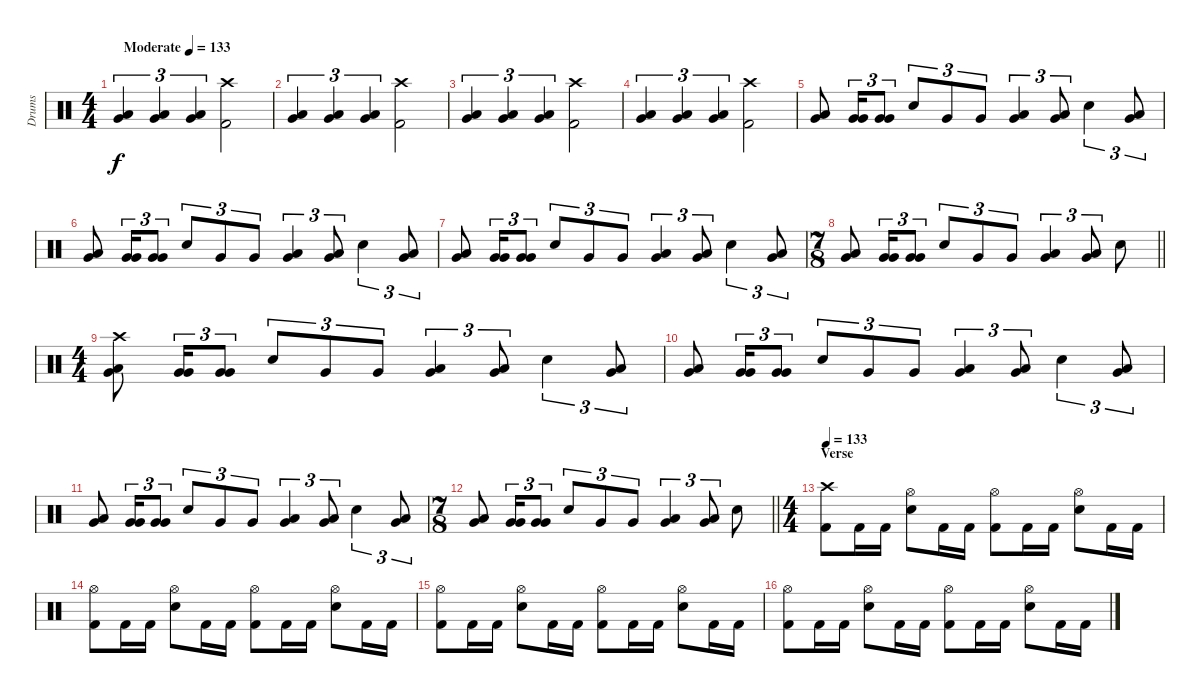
\track ("Drums" "Drums") {instrument percussion}
\staff {score}
\articulation defaults
\ts (4 4)
\tempo (133 "Moderate")
\clef neutral
\ks aminor
("Low Tom (hit)" "Very Low Tom (hit)").4{tu (3 2) dy f} ("Low Tom (hit)" "Very Low Tom (hit)").4{tu (3 2)} ("Low Tom (hit)" "Very Low Tom (hit)").4{tu (3 2)} ("Crash high (hit)" "Kick (hit) 2").2 |
("Low Tom (hit)" "Very Low Tom (hit)").4{tu (3 2)} ("Low Tom (hit)" "Very Low Tom (hit)").4{tu (3 2)} ("Low Tom (hit)" "Very Low Tom (hit)").4{tu (3 2)} ("Crash high (hit)" "Kick (hit) 2").2 |
("Low Tom (hit)" "Very Low Tom (hit)").4{tu (3 2)} ("Low Tom (hit)" "Very Low Tom (hit)").4{tu (3 2)} ("Low Tom (hit)" "Very Low Tom (hit)").4{tu (3 2)} ("Crash high (hit)" "Kick (hit) 2").2 |
("Low Tom (hit)" "Very Low Tom (hit)").4{tu (3 2)} ("Low Tom (hit)" "Very Low Tom (hit)").4{tu (3 2)} ("Low Tom (hit)" "Very Low Tom (hit)").4{tu (3 2)} ("Crash high (hit)" "Kick (hit) 2").2 |
("Low Tom (hit)" "Very Low Tom (hit)").8 ("Very Low Tom (hit)" "Very Low Tom (hit)").16{tu (3 2)} ("Very Low Tom (hit)" "Very Low Tom (hit)").8{tu (3 2)} "Electric Snare (hit)".8{tu (3 2)} "Very Low Tom (hit)".8{tu (3 2)} "Very Low Tom (hit)".8{tu (3 2)} ("Low Tom (hit)" "Very Low Tom (hit)").4{tu (3 2)} ("Low Tom (hit)" "Very Low Tom (hit)").8{tu (3 2)} "Electric Snare (hit)".4{tu (3 2)} ("Low Tom (hit)" "Very Low Tom (hit)").8{tu (3 2)} |
("Low Tom (hit)" "Very Low Tom (hit)").8 ("Very Low Tom (hit)" "Very Low Tom (hit)").16{tu (3 2)} ("Very Low Tom (hit)" "Very Low Tom (hit)").8{tu (3 2)} "Electric Snare (hit)".8{tu (3 2)} "Very Low Tom (hit)".8{tu (3 2)} "Very Low Tom (hit)".8{tu (3 2)} ("Low Tom (hit)" "Very Low Tom (hit)").4{tu (3 2)} ("Low Tom (hit)" "Very Low Tom (hit)").8{tu (3 2)} "Electric Snare (hit)".4{tu (3 2)} ("Low Tom (hit)" "Very Low Tom (hit)").8{tu (3 2)} |
("Low Tom (hit)" "Very Low Tom (hit)").8 ("Very Low Tom (hit)" "Very Low Tom (hit)").16{tu (3 2)} ("Very Low Tom (hit)" "Very Low Tom (hit)").8{tu (3 2)} "Electric Snare (hit)".8{tu (3 2)} "Very Low Tom (hit)".8{tu (3 2)} "Very Low Tom (hit)".8{tu (3 2)} ("Low Tom (hit)" "Very Low Tom (hit)").4{tu (3 2)} ("Low Tom (hit)" "Very Low Tom (hit)").8{tu (3 2)} "Electric Snare (hit)".4{tu (3 2)} ("Low Tom (hit)" "Very Low Tom (hit)").8{tu (3 2)} |
\ts (7 8)
\barLineRight lightlight
("Low Tom (hit)" "Very Low Tom (hit)").8 ("Very Low Tom (hit)" "Very Low Tom (hit)").16{tu (3 2)} ("Very Low Tom (hit)" "Very Low Tom (hit)").8{tu (3 2)} "Electric Snare (hit)".8{tu (3 2)} "Very Low Tom (hit)".8{tu (3 2)} "Very Low Tom (hit)".8{tu (3 2)} ("Low Tom (hit)" "Very Low Tom (hit)").4{tu (3 2)} ("Low Tom (hit)" "Very Low Tom (hit)").8{tu (3 2)} "Electric Snare (hit)".8 |
\ts (4 4)
("Crash high (hit)" "Low Tom (hit)" "Very Low Tom (hit)").8 ("Very Low Tom (hit)" "Very Low Tom (hit)").16{tu (3 2)} ("Very Low Tom (hit)" "Very Low Tom (hit)").8{tu (3 2)} "Electric Snare (hit)".8{tu (3 2)} "Very Low Tom (hit)".8{tu (3 2)} "Very Low Tom (hit)".8{tu (3 2)} ("Low Tom (hit)" "Very Low Tom (hit)").4{tu (3 2)} ("Low Tom (hit)" "Very Low Tom (hit)").8{tu (3 2)} "Electric Snare (hit)".4{tu (3 2)} ("Low Tom (hit)" "Very Low Tom (hit)").8{tu (3 2)} |
("Low Tom (hit)" "Very Low Tom (hit)").8 ("Very Low Tom (hit)" "Very Low Tom (hit)").16{tu (3 2)} ("Very Low Tom (hit)" "Very Low Tom (hit)").8{tu (3 2)} "Electric Snare (hit)".8{tu (3 2)} "Very Low Tom (hit)".8{tu (3 2)} "Very Low Tom (hit)".8{tu (3 2)} ("Low Tom (hit)" "Very Low Tom (hit)").4{tu (3 2)} ("Low Tom (hit)" "Very Low Tom (hit)").8{tu (3 2)} "Electric Snare (hit)".4{tu (3 2)} ("Low Tom (hit)" "Very Low Tom (hit)").8{tu (3 2)} |
("Low Tom (hit)" "Very Low Tom (hit)").8 ("Very Low Tom (hit)" "Very Low Tom (hit)").16{tu (3 2)} ("Very Low Tom (hit)" "Very Low Tom (hit)").8{tu (3 2)} "Electric Snare (hit)".8{tu (3 2)} "Very Low Tom (hit)".8{tu (3 2)} "Very Low Tom (hit)".8{tu (3 2)} ("Low Tom (hit)" "Very Low Tom (hit)").4{tu (3 2)} ("Low Tom (hit)" "Very Low Tom (hit)").8{tu (3 2)} "Electric Snare (hit)".4{tu (3 2)} ("Low Tom (hit)" "Very Low Tom (hit)").8{tu (3 2)} |
\ts (7 8)
\barLineRight lightlight
("Low Tom (hit)" "Very Low Tom (hit)").8 ("Very Low Tom (hit)" "Very Low Tom (hit)").16{tu (3 2)} ("Very Low Tom (hit)" "Very Low Tom (hit)").8{tu (3 2)} "Electric Snare (hit)".8{tu (3 2)} "Very Low Tom (hit)".8{tu (3 2)} "Very Low Tom (hit)".8{tu (3 2)} ("Low Tom (hit)" "Very Low Tom (hit)").4{tu (3 2)} ("Low Tom (hit)" "Very Low Tom (hit)").8{tu (3 2)} "Electric Snare (hit)".8 |
\ts (4 4)
\section ("" "Verse")
\tempo 133
("Crash high (hit)" "Kick (hit) 2").8 "Kick (hit) 2".16 "Kick (hit) 2".16 ("Hi-Hat (open)" "Electric Snare (hit)").8 "Kick (hit) 2".16 "Kick (hit) 2".16 ("Hi-Hat (open)" "Kick (hit) 2").8 "Kick (hit) 2".16 "Kick (hit) 2".16 ("Hi-Hat (open)" "Electric Snare (hit)").8 "Kick (hit) 2".16 "Kick (hit) 2".16 |
("Hi-Hat (open)" "Kick (hit) 2").8 "Kick (hit) 2".16 "Kick (hit) 2".16 ("Hi-Hat (open)" "Electric Snare (hit)").8 "Kick (hit) 2".16 "Kick (hit) 2".16 ("Hi-Hat (open)" "Kick (hit) 2").8 "Kick (hit) 2".16 "Kick (hit) 2".16 ("Hi-Hat (open)" "Electric Snare (hit)").8 "Kick (hit) 2".16 "Kick (hit) 2".16 |
("Hi-Hat (open)" "Kick (hit) 2").8 "Kick (hit) 2".16 "Kick (hit) 2".16 ("Hi-Hat (open)" "Electric Snare (hit)").8 "Kick (hit) 2".16 "Kick (hit) 2".16 ("Hi-Hat (open)" "Kick (hit) 2").8 "Kick (hit) 2".16 "Kick (hit) 2".16 ("Hi-Hat (open)" "Electric Snare (hit)").8 "Kick (hit) 2".16 "Kick (hit) 2".16 |
("Hi-Hat (open)" "Kick (hit) 2").8 "Kick (hit) 2".16 "Kick (hit) 2".16 ("Hi-Hat (open)" "Electric Snare (hit)").8 "Kick (hit) 2".16 "Kick (hit) 2".16 ("Hi-Hat (open)" "Kick (hit) 2").8 "Kick (hit) 2".16 "Kick (hit) 2".16 ("Hi-Hat (open)" "Electric Snare (hit)").8 "Kick (hit) 2".16 "Kick (hit) 2".16
